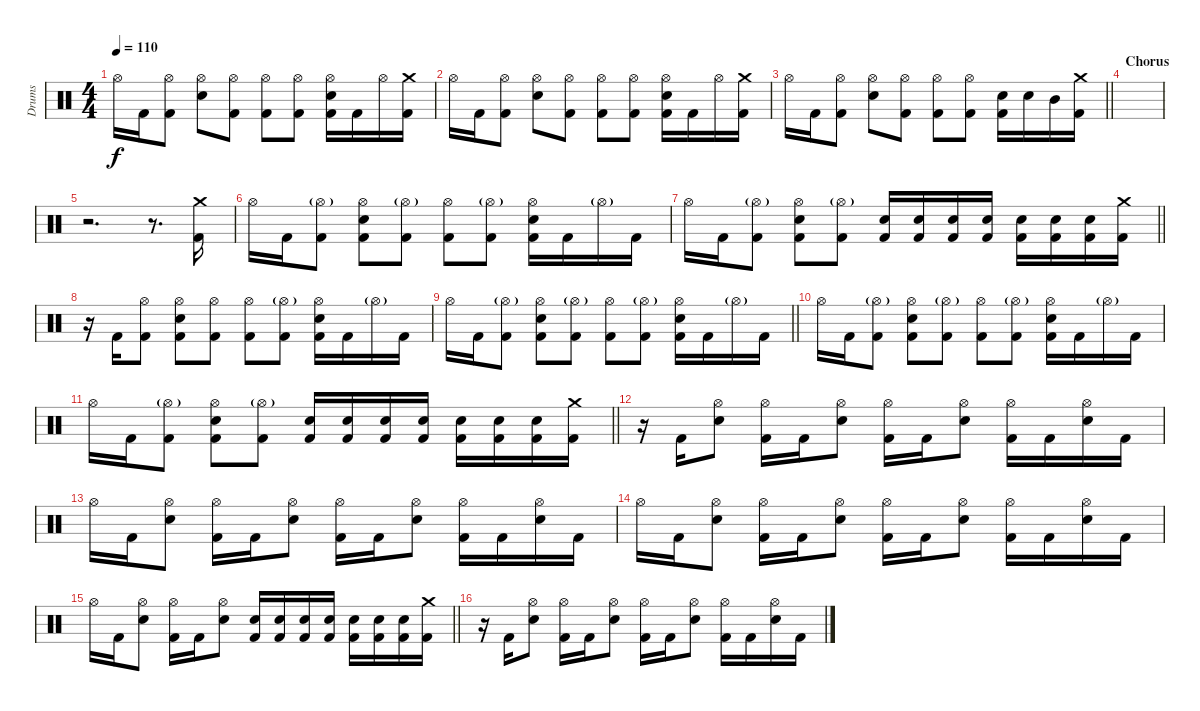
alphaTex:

\track ("Drums" "Drums") {instrument percussion}
\staff {score}
\articulation defaults
\ts (4 4)
\tempo 110
\clef neutral
\ks c "Hi-Hat (open)".16{dy f} "Kick (hit) 2".16
("Hi-Hat (open)" "Kick (hit) 2").8 ("Hi-Hat (open)" "Snare (hit) 2").8 ("Hi-Hat (open)" "Kick (hit) 2").8 ("Hi-Hat (open)" "Kick (hit) 2").8 ("Hi-Hat (open)" "Kick (hit) 2").8 ("Hi-Hat (open)" "Snare (hit) 2" "Kick (hit) 2").16 "Kick (hit) 2".16 "Hi-Hat (open)".16 ("Crash medium (hit)" "Kick (hit) 2").16 |
"Hi-Hat (open)".16 "Kick (hit) 2".16 ("Hi-Hat (open)" "Kick (hit) 2").8 ("Hi-Hat (open)" "Snare (hit) 2").8 ("Hi-Hat (open)" "Kick (hit) 2").8 ("Hi-Hat (open)" "Kick (hit) 2").8 ("Hi-Hat (open)" "Kick (hit) 2").8 ("Hi-Hat (open)" "Snare (hit) 2" "Kick (hit) 2").16 "Kick (hit) 2".16 "Hi-Hat (open)".16 ("Crash medium (hit)" "Kick (hit) 2").16 |
\barLineRight lightlight "Hi-Hat (open)".16 "Kick (hit) 2".16
("Hi-Hat (open)" "Kick (hit) 2").8 ("Hi-Hat (open)" "Snare (hit) 2").8 ("Hi-Hat (open)" "Kick (hit) 2").8 ("Hi-Hat (open)" "Kick (hit) 2").8 ("Hi-Hat (open)" "Kick (hit) 2").8 ("Snare (hit) 2" "Kick (hit) 2").16 "Snare (hit) 2".16 "Mid Tom (hit)".16 ("Crash medium (hit)" "Kick (hit) 2").16 |
\section ("" "Chorus")
|
r.2{d} r.8{d} ("Crash medium (hit)" "Kick (hit) 2").16 |
"Hi-Hat (open)".16 "Kick (hit) 2".16 ("Hi-Hat (open)"{g} "Kick (hit) 2").8 ("Hi-Hat (open)" "Snare (hit) 2" "Kick (hit) 2").8 ("Hi-Hat (open)"{g} "Kick (hit) 2").8 ("Hi-Hat (open)" "Kick (hit) 2").8 ("Hi-Hat (open)"{g} "Kick (hit) 2").8 ("Hi-Hat (open)" "Snare (hit) 2" "Kick (hit) 2").16 "Kick (hit) 2".16 "Hi-Hat (open)"{g}.16 "Kick (hit) 2".16 |
\barLineRight lightlight "Hi-Hat (open)".16 "Kick (hit) 2".16
("Hi-Hat (open)"{g} "Kick (hit) 2").8 ("Hi-Hat (open)" "Snare (hit) 2" "Kick (hit) 2").8 ("Hi-Hat (open)"{g} "Kick (hit) 2").8 ("Snare (hit) 2" "Kick (hit) 2").16 ("Snare (hit) 2" "Kick (hit) 2").16 ("Snare (hit) 2" "Kick (hit) 2").16 ("Snare (hit) 2" "Kick (hit) 2").16 ("Snare (hit) 2" "Kick (hit) 2").16 ("Snare (hit) 2" "Kick (hit) 2").16 ("Snare (hit) 2" "Kick (hit) 2").16 ("Crash medium (hit)" "Kick (hit) 2").16 |
r.16 "Kick (hit) 2".16 ("Hi-Hat (open)" "Kick (hit) 2").8 ("Hi-Hat (open)" "Snare (hit) 2" "Kick (hit) 2").8 ("Hi-Hat (open)" "Kick (hit) 2").8 ("Hi-Hat (open)" "Kick (hit) 2").8 ("Hi-Hat (open)"{g} "Kick (hit) 2").8 ("Hi-Hat (open)" "Snare (hit) 2" "Kick (hit) 2").16 "Kick (hit) 2".16 "Hi-Hat (open)"{g}.16 "Kick (hit) 2".16 |
\barLineRight lightlight "Hi-Hat (open)".16 "Kick (hit) 2".16
("Hi-Hat (open)"{g} "Kick (hit) 2").8 ("Hi-Hat (open)" "Snare (hit) 2" "Kick (hit) 2").8 ("Hi-Hat (open)"{g} "Kick (hit) 2").8 ("Hi-Hat (open)" "Kick (hit) 2").8 ("Hi-Hat (open)"{g} "Kick (hit) 2").8 ("Hi-Hat (open)" "Snare (hit) 2" "Kick (hit) 2").16 "Kick (hit) 2".16 "Hi-Hat (open)"{g}.16 "Kick (hit) 2".16 |
"Hi-Hat (open)".16 "Kick (hit) 2".16 ("Hi-Hat (open)"{g} "Kick (hit) 2").8 ("Hi-Hat (open)" "Snare (hit) 2" "Kick (hit) 2").8 ("Hi-Hat (open)"{g} "Kick (hit) 2").8 ("Hi-Hat (open)" "Kick (hit) 2").8 ("Hi-Hat (open)"{g} "Kick (hit) 2").8 ("Hi-Hat (open)" "Snare (hit) 2" "Kick (hit) 2").16 "Kick (hit) 2".16 "Hi-Hat (open)"{g}.16 "Kick (hit) 2".16 |
\barLineRight lightlight "Hi-Hat (open)".16 "Kick (hit) 2".16
("Hi-Hat (open)"{g} "Kick (hit) 2").8 ("Hi-Hat (open)" "Snare (hit) 2" "Kick (hit) 2").8 ("Hi-Hat (open)"{g} "Kick (hit) 2").8 ("Snare (hit) 2" "Kick (hit) 2").16 ("Snare (hit) 2" "Kick (hit) 2").16 ("Snare (hit) 2" "Kick (hit) 2").16 ("Snare (hit) 2" "Kick (hit) 2").16 ("Snare (hit) 2" "Kick (hit) 2").16 ("Snare (hit) 2" "Kick (hit) 2").16 ("Snare (hit) 2" "Kick (hit) 2").16 ("Crash medium (hit)" "Kick (hit) 2").16 |
r.16 "Kick (hit) 2".16 ("Hi-Hat (open)" "Snare (hit) 2").8 ("Hi-Hat (open)" "Kick (hit) 2").16 "Kick (hit) 2".16 ("Hi-Hat (open)" "Snare (hit) 2").8 ("Hi-Hat (open)" "Kick (hit) 2").16 "Kick (hit) 2".16 ("Hi-Hat (open)" "Snare (hit) 2").8 ("Hi-Hat (open)" "Kick (hit) 2").16 "Kick (hit) 2".16 ("Hi-Hat (open)" "Snare (hit) 2").16 "Kick (hit) 2".16 |
"Hi-Hat (open)".16 "Kick (hit) 2".16 ("Hi-Hat (open)" "Snare (hit) 2").8 ("Hi-Hat (open)" "Kick (hit) 2").16 "Kick (hit) 2".16 ("Hi-Hat (open)" "Snare (hit) 2").8 ("Hi-Hat (open)" "Kick (hit) 2").16 "Kick (hit) 2".16 ("Hi-Hat (open)" "Snare (hit) 2").8 ("Hi-Hat (open)" "Kick (hit) 2").16 "Kick (hit) 2".16 ("Hi-Hat (open)" "Snare (hit) 2").16 "Kick (hit) 2".16 |
"Hi-Hat (open)".16 "Kick (hit) 2".16 ("Hi-Hat (open)" "Snare (hit) 2").8 ("Hi-Hat (open)" "Kick (hit) 2").16 "Kick (hit) 2".16 ("Hi-Hat (open)" "Snare (hit) 2").8 ("Hi-Hat (open)" "Kick (hit) 2").16 "Kick (hit) 2".16 ("Hi-Hat (open)" "Snare (hit) 2").8 ("Hi-Hat (open)" "Kick (hit) 2").16 "Kick (hit) 2".16 ("Hi-Hat (open)" "Snare (hit) 2").16 "Kick (hit) 2".16 |
\barLineRight lightlight "Hi-Hat (open)".16 "Kick (hit) 2".16
("Hi-Hat (open)" "Snare (hit) 2").8 ("Hi-Hat (open)" "Kick (hit) 2").16 "Kick (hit) 2".16 ("Hi-Hat (open)" "Snare (hit) 2").8 ("Snare (hit) 2" "Kick (hit) 2").16 ("Snare (hit) 2" "Kick (hit) 2").16 ("Snare (hit) 2" "Kick (hit) 2").16 ("Snare (hit) 2" "Kick (hit) 2").16 ("Snare (hit) 2" "Kick (hit) 2").16 ("Snare (hit) 2" "Kick (hit) 2").16 ("Snare (hit) 2" "Kick (hit) 2").16 ("Crash medium (hit)" "Kick (hit) 2").16 |
r.16 "Kick (hit) 2".16 ("Hi-Hat (open)" "Snare (hit) 2").8 ("Hi-Hat (open)" "Kick (hit) 2").16 "Kick (hit) 2".16 ("Hi-Hat (open)" "Snare (hit) 2").8 ("Hi-Hat (open)" "Kick (hit) 2").16 "Kick (hit) 2".16 ("Hi-Hat (open)" "Snare (hit) 2").8 ("Hi-Hat (open)" "Kick (hit) 2").16 "Kick (hit) 2".16 ("Hi-Hat (open)" "Snare (hit) 2").16 "Kick (hit) 2".16
